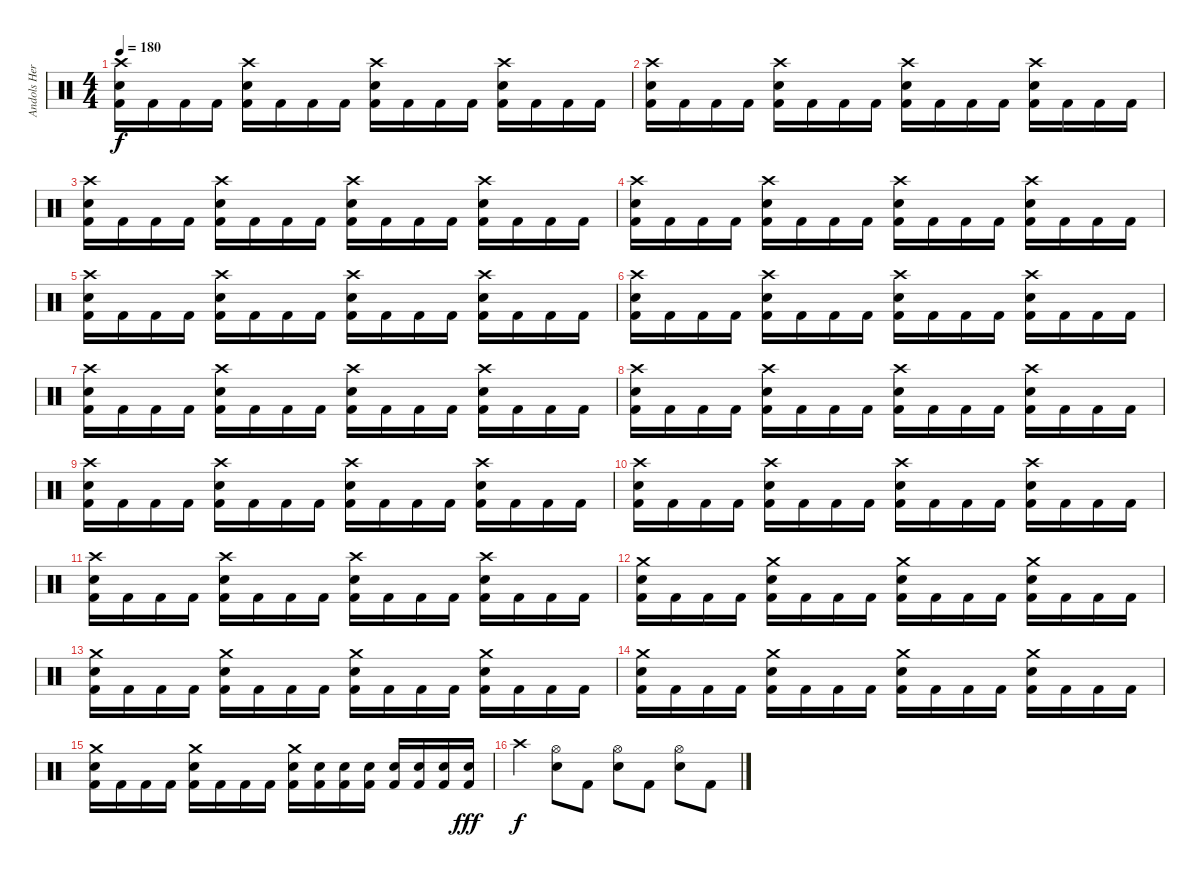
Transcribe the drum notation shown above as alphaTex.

\track ("Andols Herrick" "Andols Her") {instrument percussion}
\staff {score}
\articulation defaults
\ts (4 4)
\tempo 180
\clef neutral
\ks c
("Crash high (hit)" "Electric Snare (hit)" "Kick (hit) 2").16{dy f} "Kick (hit) 2".16 "Kick (hit) 2".16 "Kick (hit) 2".16 ("Crash high (hit)" "Electric Snare (hit)" "Kick (hit) 2").16 "Kick (hit) 2".16 "Kick (hit) 2".16 "Kick (hit) 2".16 ("Crash high (hit)" "Electric Snare (hit)" "Kick (hit) 2").16 "Kick (hit) 2".16 "Kick (hit) 2".16 "Kick (hit) 2".16 ("Crash high (hit)" "Electric Snare (hit)" "Kick (hit) 2").16 "Kick (hit) 2".16 "Kick (hit) 2".16 "Kick (hit) 2".16 |
("Crash high (hit)" "Electric Snare (hit)" "Kick (hit) 2").16 "Kick (hit) 2".16 "Kick (hit) 2".16 "Kick (hit) 2".16 ("Crash high (hit)" "Electric Snare (hit)" "Kick (hit) 2").16 "Kick (hit) 2".16 "Kick (hit) 2".16 "Kick (hit) 2".16 ("Crash high (hit)" "Electric Snare (hit)" "Kick (hit) 2").16 "Kick (hit) 2".16 "Kick (hit) 2".16 "Kick (hit) 2".16 ("Crash high (hit)" "Electric Snare (hit)" "Kick (hit) 2").16 "Kick (hit) 2".16 "Kick (hit) 2".16 "Kick (hit) 2".16 |
("Crash high (hit)" "Electric Snare (hit)" "Kick (hit) 2").16 "Kick (hit) 2".16 "Kick (hit) 2".16 "Kick (hit) 2".16 ("Crash high (hit)" "Electric Snare (hit)" "Kick (hit) 2").16 "Kick (hit) 2".16 "Kick (hit) 2".16 "Kick (hit) 2".16 ("Crash high (hit)" "Electric Snare (hit)" "Kick (hit) 2").16 "Kick (hit) 2".16 "Kick (hit) 2".16 "Kick (hit) 2".16 ("Crash high (hit)" "Electric Snare (hit)" "Kick (hit) 2").16 "Kick (hit) 2".16 "Kick (hit) 2".16 "Kick (hit) 2".16 |
("Crash high (hit)" "Electric Snare (hit)" "Kick (hit) 2").16 "Kick (hit) 2".16 "Kick (hit) 2".16 "Kick (hit) 2".16 ("Crash high (hit)" "Electric Snare (hit)" "Kick (hit) 2").16 "Kick (hit) 2".16 "Kick (hit) 2".16 "Kick (hit) 2".16 ("Crash high (hit)" "Electric Snare (hit)" "Kick (hit) 2").16 "Kick (hit) 2".16 "Kick (hit) 2".16 "Kick (hit) 2".16 ("Crash high (hit)" "Electric Snare (hit)" "Kick (hit) 2").16 "Kick (hit) 2".16 "Kick (hit) 2".16 "Kick (hit) 2".16 |
("Crash high (hit)" "Electric Snare (hit)" "Kick (hit) 2").16 "Kick (hit) 2".16 "Kick (hit) 2".16 "Kick (hit) 2".16 ("Crash high (hit)" "Electric Snare (hit)" "Kick (hit) 2").16 "Kick (hit) 2".16 "Kick (hit) 2".16 "Kick (hit) 2".16 ("Crash high (hit)" "Electric Snare (hit)" "Kick (hit) 2").16 "Kick (hit) 2".16 "Kick (hit) 2".16 "Kick (hit) 2".16 ("Crash high (hit)" "Electric Snare (hit)" "Kick (hit) 2").16 "Kick (hit) 2".16 "Kick (hit) 2".16 "Kick (hit) 2".16 |
("Crash high (hit)" "Electric Snare (hit)" "Kick (hit) 2").16 "Kick (hit) 2".16 "Kick (hit) 2".16 "Kick (hit) 2".16 ("Crash high (hit)" "Electric Snare (hit)" "Kick (hit) 2").16 "Kick (hit) 2".16 "Kick (hit) 2".16 "Kick (hit) 2".16 ("Crash high (hit)" "Electric Snare (hit)" "Kick (hit) 2").16 "Kick (hit) 2".16 "Kick (hit) 2".16 "Kick (hit) 2".16 ("Crash high (hit)" "Electric Snare (hit)" "Kick (hit) 2").16 "Kick (hit) 2".16 "Kick (hit) 2".16 "Kick (hit) 2".16 |
("Crash high (hit)" "Electric Snare (hit)" "Kick (hit) 2").16 "Kick (hit) 2".16 "Kick (hit) 2".16 "Kick (hit) 2".16 ("Crash high (hit)" "Electric Snare (hit)" "Kick (hit) 2").16 "Kick (hit) 2".16 "Kick (hit) 2".16 "Kick (hit) 2".16 ("Crash high (hit)" "Electric Snare (hit)" "Kick (hit) 2").16 "Kick (hit) 2".16 "Kick (hit) 2".16 "Kick (hit) 2".16 ("Crash high (hit)" "Electric Snare (hit)" "Kick (hit) 2").16 "Kick (hit) 2".16 "Kick (hit) 2".16 "Kick (hit) 2".16 |
("Crash high (hit)" "Electric Snare (hit)" "Kick (hit) 2").16 "Kick (hit) 2".16 "Kick (hit) 2".16 "Kick (hit) 2".16 ("Crash high (hit)" "Electric Snare (hit)" "Kick (hit) 2").16 "Kick (hit) 2".16 "Kick (hit) 2".16 "Kick (hit) 2".16 ("Crash high (hit)" "Electric Snare (hit)" "Kick (hit) 2").16 "Kick (hit) 2".16 "Kick (hit) 2".16 "Kick (hit) 2".16 ("Crash high (hit)" "Electric Snare (hit)" "Kick (hit) 2").16 "Kick (hit) 2".16 "Kick (hit) 2".16 "Kick (hit) 2".16 |
("Crash high (hit)" "Electric Snare (hit)" "Kick (hit) 2").16 "Kick (hit) 2".16 "Kick (hit) 2".16 "Kick (hit) 2".16 ("Crash high (hit)" "Electric Snare (hit)" "Kick (hit) 2").16 "Kick (hit) 2".16 "Kick (hit) 2".16 "Kick (hit) 2".16 ("Crash high (hit)" "Electric Snare (hit)" "Kick (hit) 2").16 "Kick (hit) 2".16 "Kick (hit) 2".16 "Kick (hit) 2".16 ("Crash high (hit)" "Electric Snare (hit)" "Kick (hit) 2").16 "Kick (hit) 2".16 "Kick (hit) 2".16 "Kick (hit) 2".16 |
("Crash high (hit)" "Electric Snare (hit)" "Kick (hit) 2").16 "Kick (hit) 2".16 "Kick (hit) 2".16 "Kick (hit) 2".16 ("Crash high (hit)" "Electric Snare (hit)" "Kick (hit) 2").16 "Kick (hit) 2".16 "Kick (hit) 2".16 "Kick (hit) 2".16 ("Crash high (hit)" "Electric Snare (hit)" "Kick (hit) 2").16 "Kick (hit) 2".16 "Kick (hit) 2".16 "Kick (hit) 2".16 ("Crash high (hit)" "Electric Snare (hit)" "Kick (hit) 2").16 "Kick (hit) 2".16 "Kick (hit) 2".16 "Kick (hit) 2".16 |
("Crash high (hit)" "Electric Snare (hit)" "Kick (hit) 2").16 "Kick (hit) 2".16 "Kick (hit) 2".16 "Kick (hit) 2".16 ("Crash high (hit)" "Electric Snare (hit)" "Kick (hit) 2").16 "Kick (hit) 2".16 "Kick (hit) 2".16 "Kick (hit) 2".16 ("Crash high (hit)" "Electric Snare (hit)" "Kick (hit) 2").16 "Kick (hit) 2".16 "Kick (hit) 2".16 "Kick (hit) 2".16 ("Crash high (hit)" "Electric Snare (hit)" "Kick (hit) 2").16 "Kick (hit) 2".16 "Kick (hit) 2".16 "Kick (hit) 2".16 |
("Crash medium (hit)" "Electric Snare (hit)" "Kick (hit) 2").16 "Kick (hit) 2".16 "Kick (hit) 2".16 "Kick (hit) 2".16 ("Crash medium (hit)" "Electric Snare (hit)" "Kick (hit) 2").16 "Kick (hit) 2".16 "Kick (hit) 2".16 "Kick (hit) 2".16 ("Crash medium (hit)" "Electric Snare (hit)" "Kick (hit) 2").16 "Kick (hit) 2".16 "Kick (hit) 2".16 "Kick (hit) 2".16 ("Crash medium (hit)" "Electric Snare (hit)" "Kick (hit) 2").16 "Kick (hit) 2".16 "Kick (hit) 2".16 "Kick (hit) 2".16 |
("Crash medium (hit)" "Electric Snare (hit)" "Kick (hit) 2").16 "Kick (hit) 2".16 "Kick (hit) 2".16 "Kick (hit) 2".16 ("Crash medium (hit)" "Electric Snare (hit)" "Kick (hit) 2").16 "Kick (hit) 2".16 "Kick (hit) 2".16 "Kick (hit) 2".16 ("Crash medium (hit)" "Electric Snare (hit)" "Kick (hit) 2").16 "Kick (hit) 2".16 "Kick (hit) 2".16 "Kick (hit) 2".16 ("Crash medium (hit)" "Electric Snare (hit)" "Kick (hit) 2").16 "Kick (hit) 2".16 "Kick (hit) 2".16 "Kick (hit) 2".16 |
("Crash medium (hit)" "Electric Snare (hit)" "Kick (hit) 2").16 "Kick (hit) 2".16 "Kick (hit) 2".16 "Kick (hit) 2".16 ("Crash medium (hit)" "Electric Snare (hit)" "Kick (hit) 2").16 "Kick (hit) 2".16 "Kick (hit) 2".16 "Kick (hit) 2".16 ("Crash medium (hit)" "Electric Snare (hit)" "Kick (hit) 2").16 "Kick (hit) 2".16 "Kick (hit) 2".16 "Kick (hit) 2".16 ("Crash medium (hit)" "Electric Snare (hit)" "Kick (hit) 2").16 "Kick (hit) 2".16 "Kick (hit) 2".16 "Kick (hit) 2".16 |
("Crash medium (hit)" "Electric Snare (hit)" "Kick (hit) 2").16 "Kick (hit) 2".16 "Kick (hit) 2".16 "Kick (hit) 2".16 ("Crash medium (hit)" "Electric Snare (hit)" "Kick (hit) 2").16 "Kick (hit) 2".16 "Kick (hit) 2".16 "Kick (hit) 2".16 ("Crash medium (hit)" "Electric Snare (hit)" "Kick (hit) 2").16 ("Electric Snare (hit)" "Kick (hit) 2").16 ("Electric Snare (hit)" "Kick (hit) 2").16 ("Electric Snare (hit)" "Kick (hit) 2").16 ("Electric Snare (hit)" "Kick (hit) 2").16 ("Electric Snare (hit)" "Kick (hit) 2").16 ("Electric Snare (hit)" "Kick (hit) 2").16 ("Electric Snare (hit)" "Kick (hit) 2").16{dy fff} |
"Crash high (hit)".4{dy f} ("Hi-Hat (open)" "Electric Snare (hit)").8 "Kick (hit) 2".8 ("Hi-Hat (open)" "Electric Snare (hit)").8 "Kick (hit) 2".8 ("Hi-Hat (open)" "Electric Snare (hit)").8 "Kick (hit) 2".8
